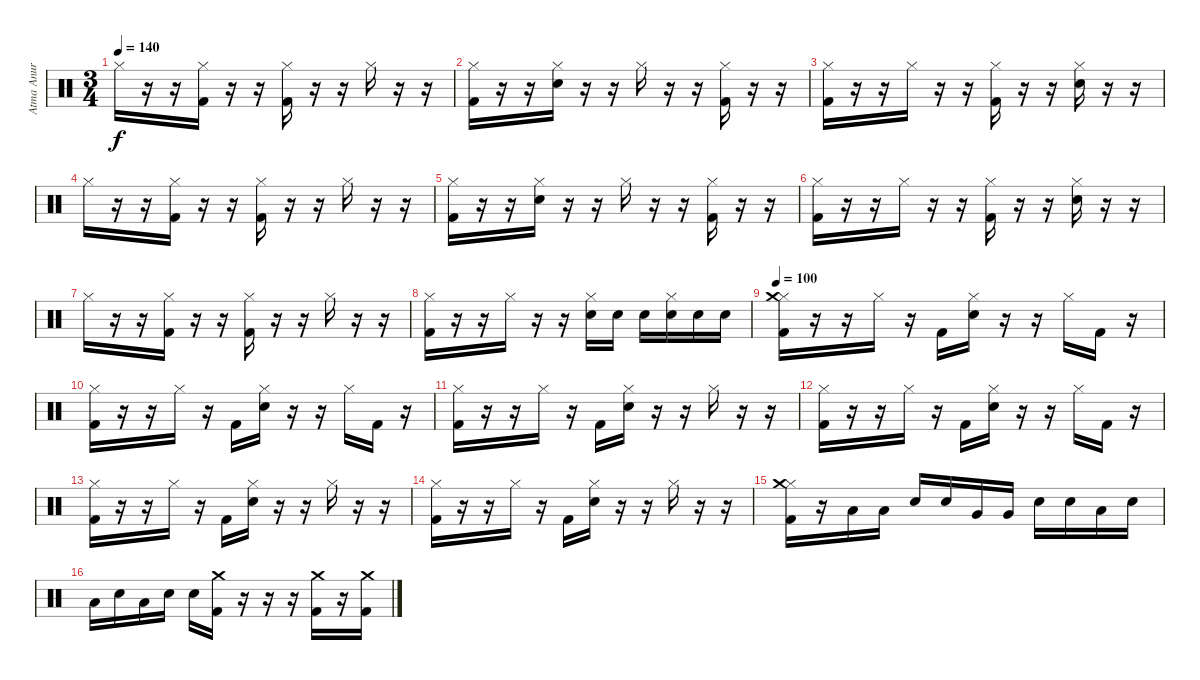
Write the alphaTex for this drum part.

\track ("Atma Anur" "Atma Anur") {instrument percussion}
\staff {score}
\articulation defaults
\ts (3 4)
\tempo 140
\clef neutral
\ks c "Hi-Hat (closed)".16{dy f}
r.16 r.16 ("Hi-Hat (closed)" "Kick (hit) 2").16 r.16 r.16 ("Hi-Hat (closed)" "Kick (hit) 2").16 r.16 r.16 "Hi-Hat (closed)".16 r.16 r.16 |
("Hi-Hat (closed)" "Kick (hit) 2").16 r.16 r.16 ("Hi-Hat (closed)" "Snare (hit) 2").16 r.16 r.16 "Hi-Hat (closed)".16 r.16 r.16 ("Hi-Hat (closed)" "Kick (hit) 2").16 r.16 r.16 |
("Hi-Hat (closed)" "Kick (hit) 2").16 r.16 r.16 "Hi-Hat (closed)".16 r.16 r.16 ("Hi-Hat (closed)" "Kick (hit) 2").16 r.16 r.16 ("Hi-Hat (closed)" "Snare (hit) 2").16 r.16 r.16 |
"Hi-Hat (closed)".16 r.16 r.16 ("Hi-Hat (closed)" "Kick (hit) 2").16 r.16 r.16 ("Hi-Hat (closed)" "Kick (hit) 2").16 r.16 r.16 "Hi-Hat (closed)".16 r.16 r.16 |
("Hi-Hat (closed)" "Kick (hit) 2").16 r.16 r.16 ("Hi-Hat (closed)" "Snare (hit) 2").16 r.16 r.16 "Hi-Hat (closed)".16 r.16 r.16 ("Hi-Hat (closed)" "Kick (hit) 2").16 r.16 r.16 |
("Hi-Hat (closed)" "Kick (hit) 2").16 r.16 r.16 "Hi-Hat (closed)".16 r.16 r.16 ("Hi-Hat (closed)" "Kick (hit) 2").16 r.16 r.16 ("Hi-Hat (closed)" "Snare (hit) 2").16 r.16 r.16 |
"Hi-Hat (closed)".16 r.16 r.16 ("Hi-Hat (closed)" "Kick (hit) 2").16 r.16 r.16 ("Hi-Hat (closed)" "Kick (hit) 2").16 r.16 r.16 "Hi-Hat (closed)".16 r.16 r.16 |
("Hi-Hat (closed)" "Kick (hit) 2").16 r.16 r.16 "Hi-Hat (closed)".16 r.16 r.16 ("Hi-Hat (closed)" "Snare (hit) 2").16 "Snare (hit) 2".16 "Snare (hit) 2".16 ("Hi-Hat (closed)" "Snare (hit) 2").16 "Snare (hit) 2".16 "Snare (hit) 2".16 |
\tempo 100
("Hi-Hat (closed)" "Crash medium (hit)" "Kick (hit) 2").16 r.16 r.16 "Hi-Hat (closed)".16 r.16 "Kick (hit) 2".16 ("Hi-Hat (closed)" "Snare (hit) 2").16 r.16 r.16 "Hi-Hat (closed)".16 "Kick (hit) 2".16 r.16 |
("Hi-Hat (closed)" "Kick (hit) 2").16 r.16 r.16 "Hi-Hat (closed)".16 r.16 "Kick (hit) 2".16 ("Hi-Hat (closed)" "Snare (hit) 2").16 r.16 r.16 "Hi-Hat (closed)".16 "Kick (hit) 2".16 r.16 |
("Hi-Hat (closed)" "Kick (hit) 2").16 r.16 r.16 "Hi-Hat (closed)".16 r.16 "Kick (hit) 2".16 ("Hi-Hat (closed)" "Snare (hit) 2").16 r.16 r.16 "Hi-Hat (closed)".16 r.16 r.16 |
("Hi-Hat (closed)" "Kick (hit) 2").16 r.16 r.16 "Hi-Hat (closed)".16 r.16 "Kick (hit) 2".16 ("Hi-Hat (closed)" "Snare (hit) 2").16 r.16 r.16 "Hi-Hat (closed)".16 "Kick (hit) 2".16 r.16 |
("Hi-Hat (closed)" "Kick (hit) 2").16 r.16 r.16 "Hi-Hat (closed)".16 r.16 "Kick (hit) 2".16 ("Hi-Hat (closed)" "Snare (hit) 2").16 r.16 r.16 "Hi-Hat (closed)".16 r.16 r.16 |
("Hi-Hat (closed)" "Kick (hit) 2").16 r.16 r.16 "Hi-Hat (closed)".16 r.16 "Kick (hit) 2".16 ("Hi-Hat (closed)" "Snare (hit) 2").16 r.16 r.16 "Hi-Hat (closed)".16 r.16 r.16 |
("Hi-Hat (closed)" "Crash medium (hit)" "Kick (hit) 2").16 r.16 "Low Tom (hit)".16 "Low Tom (hit)".16 "Snare (hit) 2".16 "Snare (hit) 2".16 "Very Low Tom (hit)".16 "Very Low Tom (hit)".16 "Snare (hit) 2".16 "Snare (hit) 2".16 "Low Floor Tom (hit)".16 "Snare (hit) 2".16 |
"Low Floor Tom (hit)".16 "Snare (hit) 2".16 "Low Floor Tom (hit)".16 "Snare (hit) 2".16 "Snare (hit) 2".16 ("Crash medium (hit)" "Kick (hit) 2").16 r.16 r.16 r.16 ("Crash medium (hit)" "Kick (hit) 2").16 r.16 ("Crash medium (hit)" "Kick (hit) 2").16
